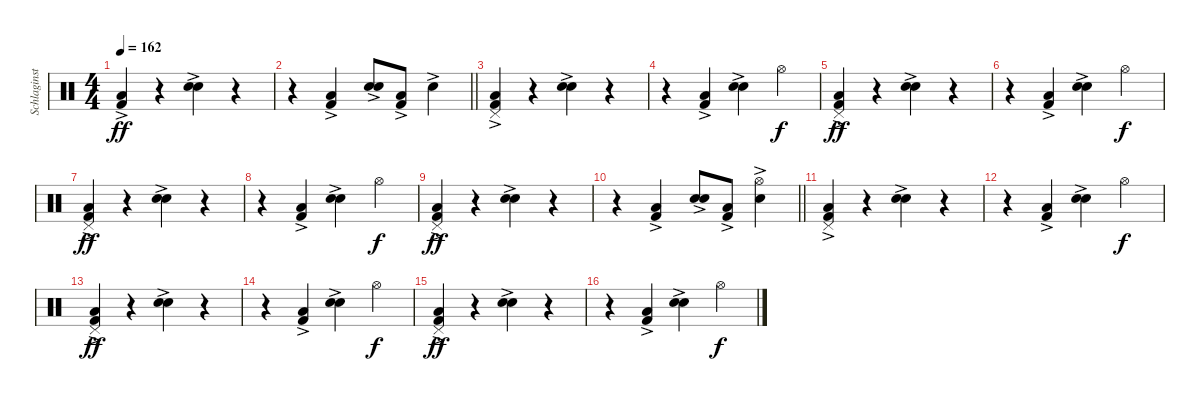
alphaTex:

\track ("Schlaginstrumente - Auswahl" "Schlaginst") {instrument percussion}
\staff {score}
\articulation defaults
\ts (4 4)
\tempo 162
\clef neutral
\ks c
("Kick (hit) 2"{ac} "Low Floor Tom (hit)").4{dy ff} r.4 ("Hand Clap (hit)" "Electric Snare (hit)"{ac}).4 r.4 |
\barLineRight lightlight
r.4 ("Low Floor Tom (hit)" "Kick (hit) 2"{ac}).4 ("Hand Clap (hit)" "Electric Snare (hit)"{ac}).8 ("Low Floor Tom (hit)" "Kick (hit) 2"{ac}).8 "Electric Snare (hit)"{ac}.4 |
("Pedal Hi-Hat (hit)" "Low Floor Tom (hit)" "Kick (hit) 2"{ac}).4 r.4 ("Hand Clap (hit)" "Electric Snare (hit)"{ac}).4 r.4 |
r.4 ("Low Floor Tom (hit)" "Kick (hit) 2"{ac}).4 ("Hand Clap (hit)" "Electric Snare (hit)"{ac}).4 "Hi-Hat (open)".4{dy f} |
("Pedal Hi-Hat (hit)" "Low Floor Tom (hit)" "Kick (hit) 2"{ac}).4{dy ff} r.4 ("Hand Clap (hit)" "Electric Snare (hit)"{ac}).4 r.4 |
r.4 ("Low Floor Tom (hit)" "Kick (hit) 2"{ac}).4 ("Hand Clap (hit)" "Electric Snare (hit)"{ac}).4 "Hi-Hat (open)".4{dy f} |
("Pedal Hi-Hat (hit)" "Low Floor Tom (hit)" "Kick (hit) 2"{ac}).4{dy ff} r.4 ("Hand Clap (hit)" "Electric Snare (hit)"{ac}).4 r.4 |
r.4 ("Low Floor Tom (hit)" "Kick (hit) 2"{ac}).4 ("Hand Clap (hit)" "Electric Snare (hit)"{ac}).4 "Hi-Hat (open)".4{dy f} |
("Pedal Hi-Hat (hit)" "Kick (hit) 2"{ac} "Low Floor Tom (hit)").4{dy ff} r.4 ("Hand Clap (hit)" "Electric Snare (hit)"{ac}).4 r.4 |
\barLineRight lightlight
r.4 ("Low Floor Tom (hit)" "Kick (hit) 2"{ac}).4 ("Hand Clap (hit)" "Electric Snare (hit)"{ac}).8 ("Low Floor Tom (hit)" "Kick (hit) 2"{ac}).8 ("Hi-Hat (open)" "Electric Snare (hit)"{ac}).4 |
("Pedal Hi-Hat (hit)" "Low Floor Tom (hit)" "Kick (hit) 2"{ac}).4 r.4 ("Hand Clap (hit)" "Electric Snare (hit)"{ac}).4 r.4 |
r.4 ("Low Floor Tom (hit)" "Kick (hit) 2"{ac}).4 ("Hand Clap (hit)" "Electric Snare (hit)"{ac}).4 "Hi-Hat (open)".4{dy f} |
("Pedal Hi-Hat (hit)" "Low Floor Tom (hit)" "Kick (hit) 2"{ac}).4{dy ff} r.4 ("Hand Clap (hit)" "Electric Snare (hit)"{ac}).4 r.4 |
r.4 ("Low Floor Tom (hit)" "Kick (hit) 2"{ac}).4 ("Hand Clap (hit)" "Electric Snare (hit)"{ac}).4 "Hi-Hat (open)".4{dy f} |
("Pedal Hi-Hat (hit)" "Low Floor Tom (hit)" "Kick (hit) 2"{ac}).4{dy ff} r.4 ("Hand Clap (hit)" "Electric Snare (hit)"{ac}).4 r.4 |
r.4 ("Low Floor Tom (hit)" "Kick (hit) 2"{ac}).4 ("Hand Clap (hit)" "Electric Snare (hit)"{ac}).4 "Hi-Hat (open)".4{dy f}
